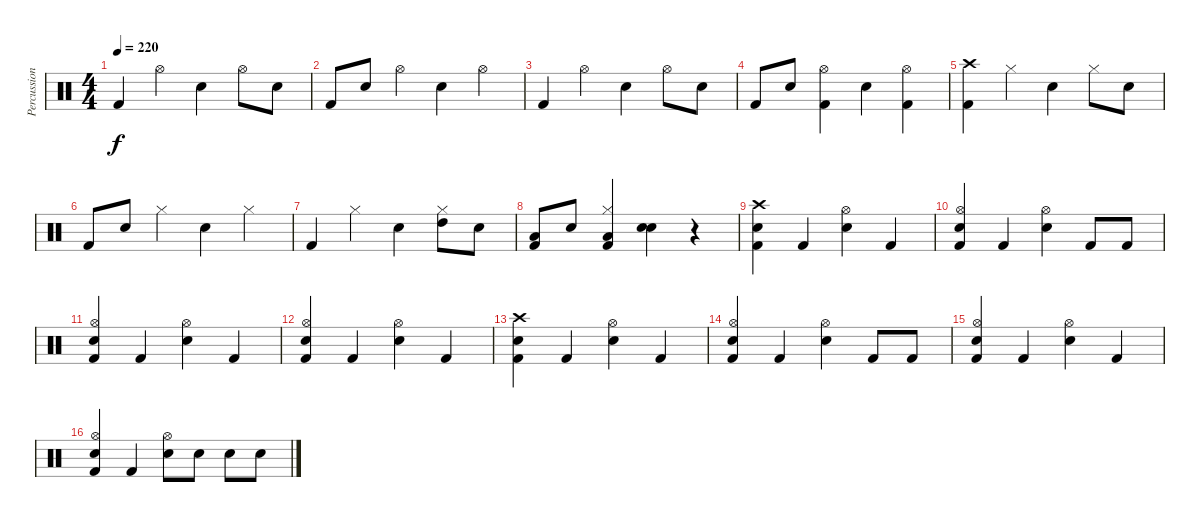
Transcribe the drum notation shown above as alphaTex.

\track ("Percussion" "Percussion") {instrument percussion}
\staff {score}
\articulation defaults
\ts (4 4)
\tempo 220
\clef neutral
\ks c "Kick (hit) 2".4{dy f} "Hi-Hat (open)".4 "Electric Snare (hit)".4 "Hi-Hat (open)".8 "Electric Snare (hit)".8
|
"Kick (hit) 2".8 "Electric Snare (hit)".8 "Hi-Hat (open)".4 "Electric Snare (hit)".4 "Hi-Hat (open)".4 |
"Kick (hit) 2".4 "Hi-Hat (open)".4 "Electric Snare (hit)".4 "Hi-Hat (open)".8 "Electric Snare (hit)".8 |
"Kick (hit) 2".8 "Electric Snare (hit)".8 ("Hi-Hat (open)" "Kick (hit) 2").4 "Electric Snare (hit)".4 ("Hi-Hat (open)" "Kick (hit) 2").4 |
("Crash high (hit)" "Kick (hit) 2").4 "Hi-Hat (closed)".4 "Electric Snare (hit)".4 "Hi-Hat (closed)".8 "Electric Snare (hit)".8 |
"Kick (hit) 2".8 "Electric Snare (hit)".8 "Hi-Hat (closed)".4 "Electric Snare (hit)".4 "Hi-Hat (closed)".4 |
"Kick (hit) 2".4 "Hi-Hat (closed)".4 "Electric Snare (hit)".4 ("Hi-Hat (closed)" "High Tom (hit)").8 "Electric Snare (hit)".8 |
("Low Tom (hit)" "Kick (hit) 2").8 "Electric Snare (hit)".8 ("Hi-Hat (closed)" "Low Floor Tom (hit)" "Kick (hit) 2").4 ("Electric Snare (hit)" "Electric Snare (hit)").4 r.4 |
("Crash high (hit)" "Electric Snare (hit)" "Kick (hit) 2").4 "Kick (hit) 2".4 ("Hi-Hat (open)" "Electric Snare (hit)").4 "Kick (hit) 2".4 |
("Hi-Hat (open)" "Electric Snare (hit)" "Kick (hit) 2").4 "Kick (hit) 2".4 ("Hi-Hat (open)" "Electric Snare (hit)").4 "Kick (hit) 2".8 "Kick (hit) 2".8 |
("Hi-Hat (open)" "Electric Snare (hit)" "Kick (hit) 2").4 "Kick (hit) 2".4 ("Hi-Hat (open)" "Electric Snare (hit)").4 "Kick (hit) 2".4 |
("Hi-Hat (open)" "Electric Snare (hit)" "Kick (hit) 2").4 "Kick (hit) 2".4 ("Hi-Hat (open)" "Electric Snare (hit)").4 "Kick (hit) 2".4 |
("Crash high (hit)" "Electric Snare (hit)" "Kick (hit) 2").4 "Kick (hit) 2".4 ("Hi-Hat (open)" "Electric Snare (hit)").4 "Kick (hit) 2".4 |
("Hi-Hat (open)" "Electric Snare (hit)" "Kick (hit) 2").4 "Kick (hit) 2".4 ("Hi-Hat (open)" "Electric Snare (hit)").4 "Kick (hit) 2".8 "Kick (hit) 2".8 |
("Hi-Hat (open)" "Electric Snare (hit)" "Kick (hit) 2").4 "Kick (hit) 2".4 ("Hi-Hat (open)" "Electric Snare (hit)").4 "Kick (hit) 2".4 |
("Hi-Hat (open)" "Electric Snare (hit)" "Kick (hit) 2").4 "Kick (hit) 2".4 ("Hi-Hat (open)" "Electric Snare (hit)").8 "Electric Snare (hit)".8 "Electric Snare (hit)".8 "Electric Snare (hit)".8
